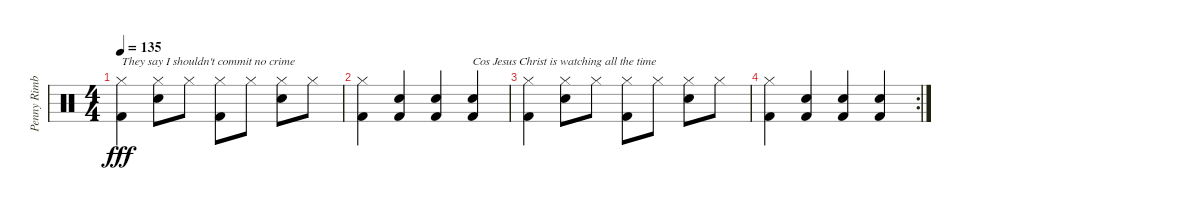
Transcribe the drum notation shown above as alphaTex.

\track ("Penny Rimbaud" "Penny Rimb") {instrument percussion}
\staff {score}
\articulation defaults
\ts (4 4)
\tempo 135
\clef neutral
\ks c
("Hi-Hat (closed)" "Kick (hit) 2").4{txt "They say I shouldn't commit no crime" dy fff} ("Hi-Hat (closed)" "Electric Snare (hit)").8 "Hi-Hat (closed)".8 ("Hi-Hat (closed)" "Kick (hit) 2").8 "Hi-Hat (closed)".8 ("Hi-Hat (closed)" "Electric Snare (hit)").8 "Hi-Hat (closed)".8 |
("Hi-Hat (closed)" "Kick (hit) 2").4 ("Electric Snare (hit)" "Kick (hit) 2").4 ("Electric Snare (hit)" "Kick (hit) 2").4 ("Electric Snare (hit)" "Kick (hit) 2").4{txt "Cos Jesus Christ is watching all the time"} |
("Hi-Hat (closed)" "Kick (hit) 2").4 ("Hi-Hat (closed)" "Electric Snare (hit)").8 "Hi-Hat (closed)".8 ("Hi-Hat (closed)" "Kick (hit) 2").8 "Hi-Hat (closed)".8 ("Hi-Hat (closed)" "Electric Snare (hit)").8 "Hi-Hat (closed)".8 |
\rc 2
("Hi-Hat (closed)" "Kick (hit) 2").4 ("Electric Snare (hit)" "Kick (hit) 2").4 ("Electric Snare (hit)" "Kick (hit) 2").4 ("Electric Snare (hit)" "Kick (hit) 2").4
